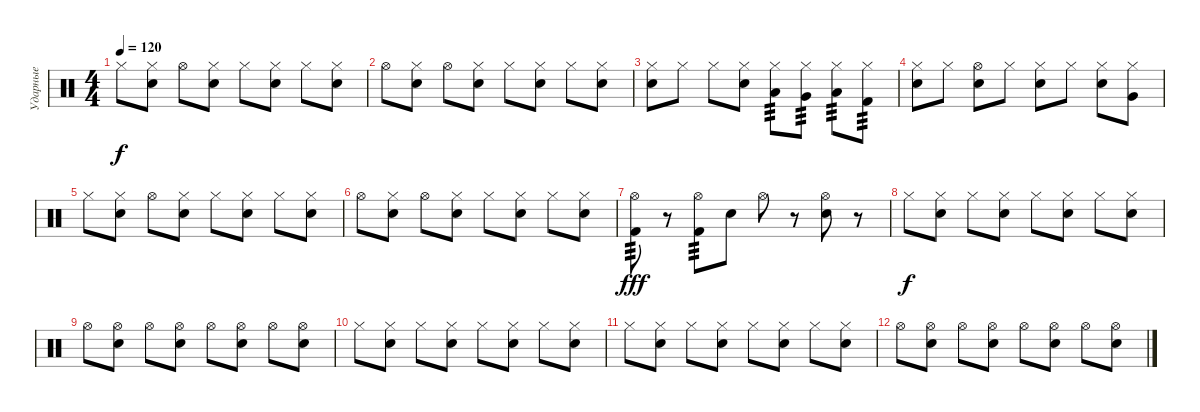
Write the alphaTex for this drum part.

\track ("Ударные" "Ударные") {instrument percussion}
\staff {score}
\articulation defaults
\ts (4 4)
\tempo 120
\clef neutral
\ks c "Hi-Hat (closed)".8{dy f}
("Hi-Hat (closed)" "Snare (hit) 2").8 "Hi-Hat (open)".8 ("Hi-Hat (closed)" "Snare (hit) 2").8 "Hi-Hat (closed)".8 ("Hi-Hat (closed)" "Snare (hit) 2").8 "Hi-Hat (closed)".8 ("Hi-Hat (closed)" "Snare (hit) 2").8 |
"Hi-Hat (open)".8 ("Hi-Hat (closed)" "Snare (hit) 2").8 "Hi-Hat (open)".8 ("Hi-Hat (closed)" "Snare (hit) 2").8 "Hi-Hat (closed)".8 ("Hi-Hat (closed)" "Snare (hit) 2").8 "Hi-Hat (closed)".8 ("Hi-Hat (closed)" "Snare (hit) 2").8 |
("Hi-Hat (closed)" "Snare (hit) 2").8 "Hi-Hat (closed)".8 "Hi-Hat (closed)".8 ("Hi-Hat (closed)" "Snare (hit) 2").8 ("Hi-Hat (closed)" "Low Tom (hit)").8{tp 3} ("Hi-Hat (closed)" "Very Low Tom (hit)").8{tp 3} ("Hi-Hat (closed)" "Low Floor Tom (hit)").8{tp 3} ("Hi-Hat (closed)" "Kick (hit) 2").8{tp 3} |
("Hi-Hat (closed)" "Snare (hit) 2").8 "Hi-Hat (closed)".8 ("Hi-Hat (open)" "Snare (hit) 2").8 "Hi-Hat (closed)".8 ("Hi-Hat (closed)" "Snare (hit) 2").8 "Hi-Hat (closed)".8 ("Hi-Hat (closed)" "Snare (hit) 2").8 ("Hi-Hat (closed)" "Very Low Tom (hit)").8 |
"Hi-Hat (closed)".8 ("Hi-Hat (closed)" "Snare (hit) 2").8 "Hi-Hat (open)".8 ("Hi-Hat (closed)" "Snare (hit) 2").8 "Hi-Hat (closed)".8 ("Hi-Hat (closed)" "Snare (hit) 2").8 "Hi-Hat (closed)".8 ("Hi-Hat (closed)" "Snare (hit) 2").8 |
"Hi-Hat (open)".8 ("Hi-Hat (closed)" "Snare (hit) 2").8 "Hi-Hat (open)".8 ("Hi-Hat (closed)" "Snare (hit) 2").8 "Hi-Hat (closed)".8 ("Hi-Hat (closed)" "Snare (hit) 2").8 "Hi-Hat (closed)".8 ("Hi-Hat (closed)" "Snare (hit) 2").8 |
("Hi-Hat (open)" "Kick (hit) 2").8{tp 3 dy fff} r.8 ("Hi-Hat (open)" "Kick (hit) 2").8{tp 3} "Snare (hit) 2".8 "Hi-Hat (open)".8 r.8 ("Hi-Hat (open)" "Snare (hit) 2").8 r.8 |
"Hi-Hat (closed)".8{dy f} ("Hi-Hat (closed)" "Snare (hit) 2").8 "Hi-Hat (closed)".8 ("Hi-Hat (closed)" "Snare (hit) 2").8 "Hi-Hat (closed)".8 ("Hi-Hat (closed)" "Snare (hit) 2").8 "Hi-Hat (closed)".8 ("Hi-Hat (closed)" "Snare (hit) 2").8 |
"Hi-Hat (open)".8 ("Hi-Hat (open)" "Snare (hit) 2").8 "Hi-Hat (open)".8 ("Hi-Hat (open)" "Snare (hit) 2").8 "Hi-Hat (open)".8 ("Hi-Hat (open)" "Snare (hit) 2").8 "Hi-Hat (open)".8 ("Hi-Hat (open)" "Snare (hit) 2").8 |
"Hi-Hat (closed)".8 ("Hi-Hat (closed)" "Snare (hit) 2").8 "Hi-Hat (closed)".8 ("Hi-Hat (closed)" "Snare (hit) 2").8 "Hi-Hat (closed)".8 ("Hi-Hat (closed)" "Snare (hit) 2").8 "Hi-Hat (closed)".8 ("Hi-Hat (closed)" "Snare (hit) 2").8 |
"Hi-Hat (closed)".8 ("Hi-Hat (closed)" "Snare (hit) 2").8 "Hi-Hat (closed)".8 ("Hi-Hat (closed)" "Snare (hit) 2").8 "Hi-Hat (closed)".8 ("Hi-Hat (closed)" "Snare (hit) 2").8 "Hi-Hat (closed)".8 ("Hi-Hat (closed)" "Snare (hit) 2").8 |
"Hi-Hat (open)".8 ("Hi-Hat (open)" "Snare (hit) 2").8 "Hi-Hat (open)".8 ("Hi-Hat (open)" "Snare (hit) 2").8 "Hi-Hat (open)".8 ("Hi-Hat (open)" "Snare (hit) 2").8 "Hi-Hat (open)".8 ("Hi-Hat (open)" "Snare (hit) 2").8
